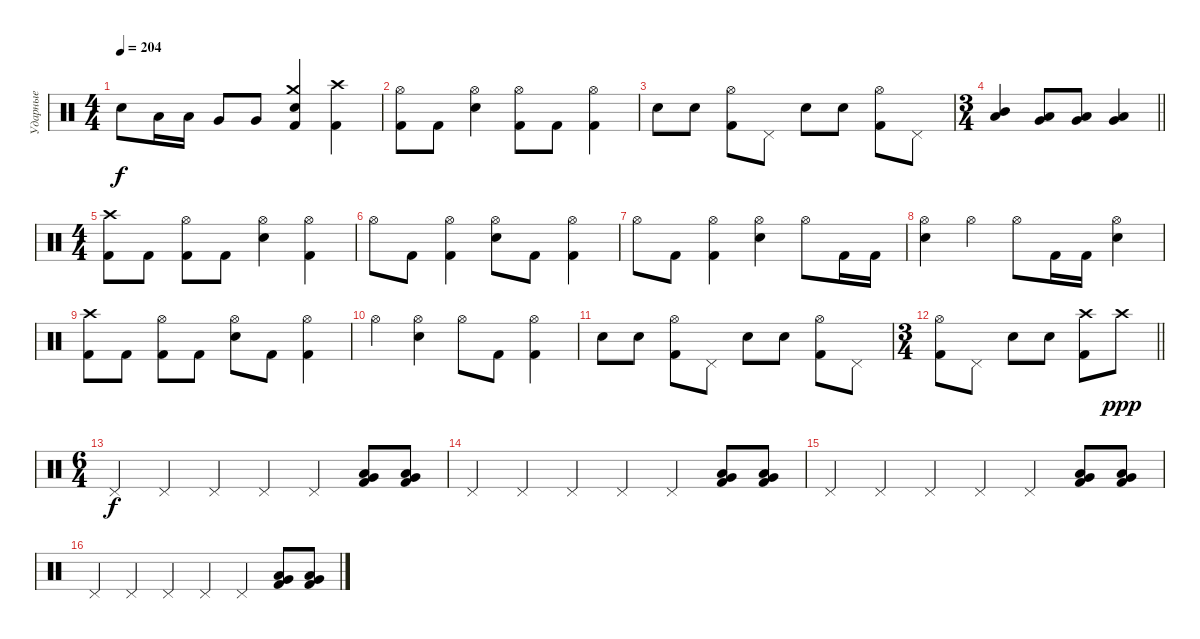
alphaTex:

\track ("Ударные" "Ударные") {instrument percussion}
\staff {score}
\articulation defaults
\ts (4 4)
\tempo 204
\clef neutral
\ks c "Snare (hit) 2".8{dy f} "Low Tom (hit)".16 "Low Tom (hit)".16 "Very Low Tom (hit)".8 "Very Low Tom (hit)".8
("Crash medium (hit)" "Snare (hit) 2" "Kick (hit) 2").4 ("Crash high (hit)" "Kick (hit) 2").4 |
("Hi-Hat (open)" "Kick (hit) 2").8 "Kick (hit) 2".8 ("Hi-Hat (open)" "Snare (hit) 2").4 ("Hi-Hat (open)" "Kick (hit) 2").8 "Kick (hit) 2".8 ("Hi-Hat (open)" "Kick (hit) 2").4 |
"Snare (hit) 2".8 "Snare (hit) 2".8 ("Hi-Hat (open)" "Kick (hit) 2").8 "Pedal Hi-Hat (hit)".8 "Snare (hit) 2".8 "Snare (hit) 2".8 ("Hi-Hat (open)" "Kick (hit) 2").8 "Pedal Hi-Hat (hit)".8 |
\ts (3 4)
\barLineRight lightlight
("Low Tom (hit)" "Mid Tom (hit)").4 ("Low Tom (hit)" "Very Low Tom (hit)").8 ("Low Tom (hit)" "Very Low Tom (hit)").8 ("Low Floor Tom (hit)" "Very Low Tom (hit)").4 |
\ts (4 4)
("Crash high (hit)" "Kick (hit) 2").8 "Kick (hit) 2".8 ("Hi-Hat (open)" "Kick (hit) 2").8 "Kick (hit) 2".8 ("Hi-Hat (open)" "Snare (hit) 2").4 ("Hi-Hat (open)" "Kick (hit) 2").4 |
"Hi-Hat (open)".8 "Kick (hit) 2".8 ("Hi-Hat (open)" "Kick (hit) 2").4 ("Hi-Hat (open)" "Snare (hit) 2").8 "Kick (hit) 2".8 ("Hi-Hat (open)" "Kick (hit) 2").4 |
"Hi-Hat (open)".8 "Kick (hit) 2".8 ("Hi-Hat (open)" "Kick (hit) 2").4 ("Hi-Hat (open)" "Snare (hit) 2").4 "Hi-Hat (open)".8 "Kick (hit) 2".16 "Kick (hit) 2".16 |
("Hi-Hat (open)" "Snare (hit) 2").4 "Hi-Hat (open)".4 "Hi-Hat (open)".8 "Kick (hit) 2".16 "Kick (hit) 2".16 ("Hi-Hat (open)" "Snare (hit) 2").4 |
("Crash high (hit)" "Kick (hit) 2").8 "Kick (hit) 2".8 ("Hi-Hat (open)" "Kick (hit) 2").8 "Kick (hit) 2".8 ("Hi-Hat (open)" "Snare (hit) 2").8 "Kick (hit) 2".8 ("Hi-Hat (open)" "Kick (hit) 2").4 |
"Hi-Hat (open)".4 ("Hi-Hat (open)" "Snare (hit) 2").4 "Hi-Hat (open)".8 "Kick (hit) 2".8 ("Hi-Hat (open)" "Kick (hit) 2").4 |
"Snare (hit) 2".8 "Snare (hit) 2".8 ("Hi-Hat (open)" "Kick (hit) 2").8 "Pedal Hi-Hat (hit)".8 "Snare (hit) 2".8 "Snare (hit) 2".8 ("Hi-Hat (open)" "Kick (hit) 2").8 "Pedal Hi-Hat (hit)".8 |
\ts (3 4)
\barLineRight lightlight
("Hi-Hat (open)" "Kick (hit) 2").8 "Pedal Hi-Hat (hit)".8 "Snare (hit) 2".8 "Snare (hit) 2".8 ("Crash high (hit)" "Kick (hit) 2").8 "Crash high (hit)".8{dy ppp} |
\ts (6 4)
"Pedal Hi-Hat (hit)".4{dy f} "Pedal Hi-Hat (hit)".4 "Pedal Hi-Hat (hit)".4 "Pedal Hi-Hat (hit)".4 "Pedal Hi-Hat (hit)".4 ("Low Tom (hit)" "Very Low Tom (hit)" "Kick (hit) 2").8 ("Low Tom (hit)" "Very Low Tom (hit)" "Kick (hit) 2").8 |
"Pedal Hi-Hat (hit)".4 "Pedal Hi-Hat (hit)".4 "Pedal Hi-Hat (hit)".4 "Pedal Hi-Hat (hit)".4 "Pedal Hi-Hat (hit)".4 ("Low Tom (hit)" "Very Low Tom (hit)" "Kick (hit) 2").8 ("Low Tom (hit)" "Very Low Tom (hit)" "Kick (hit) 2").8 |
"Pedal Hi-Hat (hit)".4 "Pedal Hi-Hat (hit)".4 "Pedal Hi-Hat (hit)".4 "Pedal Hi-Hat (hit)".4 "Pedal Hi-Hat (hit)".4 ("Low Tom (hit)" "Very Low Tom (hit)" "Kick (hit) 2").8 ("Low Tom (hit)" "Very Low Tom (hit)" "Kick (hit) 2").8 |
"Pedal Hi-Hat (hit)".4 "Pedal Hi-Hat (hit)".4 "Pedal Hi-Hat (hit)".4 "Pedal Hi-Hat (hit)".4 "Pedal Hi-Hat (hit)".4 ("Low Tom (hit)" "Very Low Tom (hit)" "Kick (hit) 2").8 ("Low Tom (hit)" "Very Low Tom (hit)" "Kick (hit) 2").8
